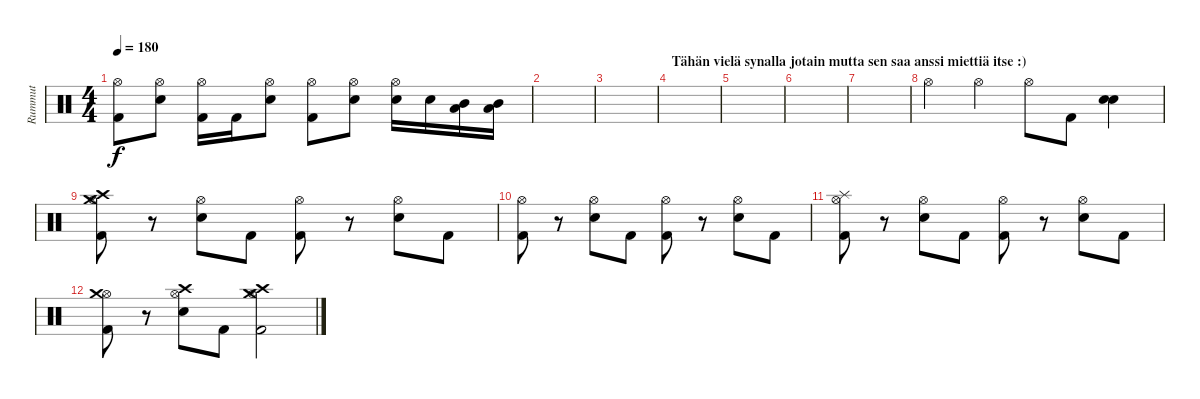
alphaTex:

\track ("Rummut" "Rummut") {instrument percussion}
\staff {score}
\articulation defaults
\ts (4 4)
\tempo 180
\clef neutral
\ks c
("Kick (hit) 2" "Hi-Hat (open)").8{dy f} ("Snare (hit) 2" "Hi-Hat (open)").8 ("Kick (hit) 2" "Hi-Hat (open)").16 "Kick (hit) 2".16 ("Snare (hit) 2" "Hi-Hat (open)").8 ("Kick (hit) 2" "Hi-Hat (open)").8 ("Snare (hit) 2" "Hi-Hat (open)").8 ("Snare (hit) 2" "Hi-Hat (open)").16 "Snare (hit) 2".16 ("Mid Tom (hit)" "Low Tom (hit)").16 ("Mid Tom (hit)" "Low Tom (hit)").16 |
|
|
\section ("" "Tähän vielä synalla jotain mutta sen saa anssi miettiä itse :)")
|
|
|
|
"Hi-Hat (open)".4 "Hi-Hat (open)".4 "Hi-Hat (open)".8 "Kick (hit) 2".8 ("Snare (hit) 2" "Electric Snare (hit)").4 |
("Kick (hit) 2" "Hi-Hat (open)" "Crash medium (hit)" "Crash high (hit)").8 r.8 ("Snare (hit) 2" "Hi-Hat (open)").8 "Kick (hit) 2".8 ("Kick (hit) 2" "Hi-Hat (open)").8 r.8 ("Snare (hit) 2" "Hi-Hat (open)").8 "Kick (hit) 2".8 |
("Kick (hit) 2" "Hi-Hat (open)").8 r.8 ("Snare (hit) 2" "Hi-Hat (open)").8 "Kick (hit) 2".8 ("Kick (hit) 2" "Hi-Hat (open)").8 r.8 ("Snare (hit) 2" "Hi-Hat (open)").8 "Kick (hit) 2".8 |
("Kick (hit) 2" "Hi-Hat (open)" "Splash (hit)").8 r.8 ("Snare (hit) 2" "Hi-Hat (open)").8 "Kick (hit) 2".8 ("Kick (hit) 2" "Hi-Hat (open)").8 r.8 ("Snare (hit) 2" "Hi-Hat (open)").8 "Kick (hit) 2".8 |
("Kick (hit) 2" "Hi-Hat (open)" "Crash medium (hit)").8 r.8 ("Snare (hit) 2" "Hi-Hat (open)" "Crash high (hit)").8 "Kick (hit) 2".8 ("Kick (hit) 2" "Hi-Hat (open)" "Crash medium (hit)" "Crash high (hit)").2
